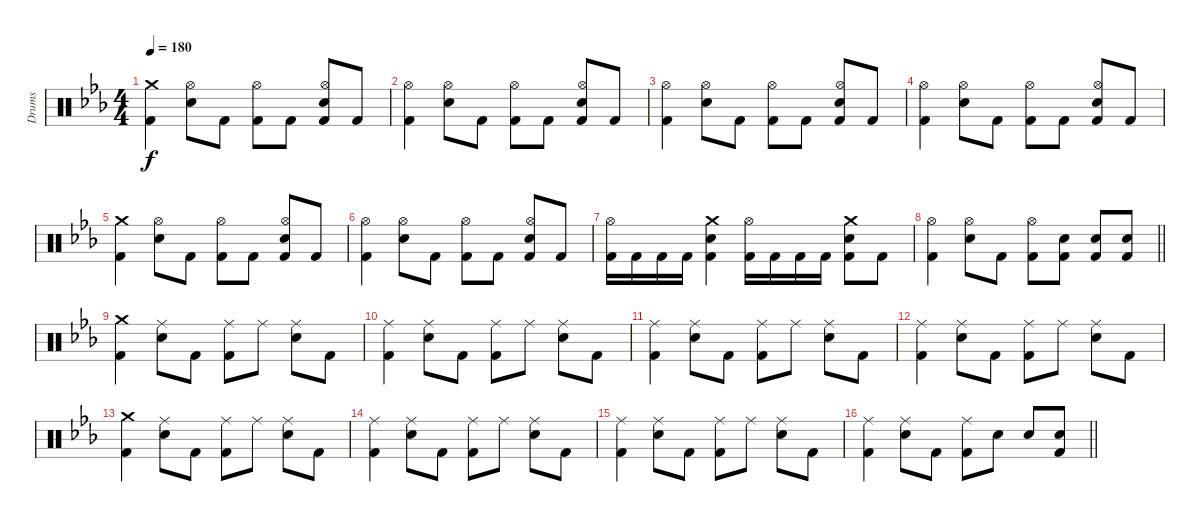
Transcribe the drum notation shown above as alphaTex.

\track ("Drums" "Drums") {instrument percussion}
\staff {score}
\articulation defaults
\ts (4 4)
\tempo 180
\clef neutral
\ks eb
("Crash medium (hit)" "Kick (hit) 2").4{dy f} ("Hi-Hat (open)" "Snare (hit) 2").8 "Kick (hit) 2".8 ("Hi-Hat (open)" "Kick (hit) 2").8 "Kick (hit) 2".8 ("Hi-Hat (open)" "Snare (hit) 2" "Kick (hit) 2").8 "Kick (hit) 2".8 |
("Hi-Hat (open)" "Kick (hit) 2").4 ("Hi-Hat (open)" "Snare (hit) 2").8 "Kick (hit) 2".8 ("Hi-Hat (open)" "Kick (hit) 2").8 "Kick (hit) 2".8 ("Hi-Hat (open)" "Snare (hit) 2" "Kick (hit) 2").8 "Kick (hit) 2".8 |
("Hi-Hat (open)" "Kick (hit) 2").4 ("Hi-Hat (open)" "Snare (hit) 2").8 "Kick (hit) 2".8 ("Hi-Hat (open)" "Kick (hit) 2").8 "Kick (hit) 2".8 ("Hi-Hat (open)" "Snare (hit) 2" "Kick (hit) 2").8 "Kick (hit) 2".8 |
("Hi-Hat (open)" "Kick (hit) 2").4 ("Hi-Hat (open)" "Snare (hit) 2").8 "Kick (hit) 2".8 ("Hi-Hat (open)" "Kick (hit) 2").8 "Kick (hit) 2".8 ("Hi-Hat (open)" "Snare (hit) 2" "Kick (hit) 2").8 "Kick (hit) 2".8 |
("Crash medium (hit)" "Kick (hit) 2").4 ("Hi-Hat (open)" "Snare (hit) 2").8 "Kick (hit) 2".8 ("Hi-Hat (open)" "Kick (hit) 2").8 "Kick (hit) 2".8 ("Hi-Hat (open)" "Snare (hit) 2" "Kick (hit) 2").8 "Kick (hit) 2".8 |
("Hi-Hat (open)" "Kick (hit) 2").4 ("Hi-Hat (open)" "Snare (hit) 2").8 "Kick (hit) 2".8 ("Hi-Hat (open)" "Kick (hit) 2").8 "Kick (hit) 2".8 ("Hi-Hat (open)" "Snare (hit) 2" "Kick (hit) 2").8 "Kick (hit) 2".8 |
("Hi-Hat (open)" "Kick (hit) 2").16 "Kick (hit) 2".16 "Kick (hit) 2".16 "Kick (hit) 2".16 ("Crash medium (hit)" "Snare (hit) 2" "Kick (hit) 2").4 ("Hi-Hat (open)" "Kick (hit) 2").16 "Kick (hit) 2".16 "Kick (hit) 2".16 "Kick (hit) 2".16 ("Crash medium (hit)" "Snare (hit) 2" "Kick (hit) 2").8 "Kick (hit) 2".8 |
\barLineRight lightlight
("Hi-Hat (open)" "Kick (hit) 2").4 ("Hi-Hat (open)" "Snare (hit) 2").8 "Kick (hit) 2".8 ("Hi-Hat (open)" "Kick (hit) 2").8 ("Snare (hit) 2" "Kick (hit) 2").8 ("Snare (hit) 2" "Kick (hit) 2").8 ("Snare (hit) 2" "Kick (hit) 2").8 |
\section ("" "")
("Crash medium (hit)" "Kick (hit) 2").4 ("Ride (middle)" "Snare (hit) 2").8 "Kick (hit) 2".8 ("Ride (middle)" "Kick (hit) 2").8 "Ride (middle)".8 ("Ride (middle)" "Snare (hit) 2").8 "Kick (hit) 2".8 |
("Ride (middle)" "Kick (hit) 2").4 ("Ride (middle)" "Snare (hit) 2").8 "Kick (hit) 2".8 ("Ride (middle)" "Kick (hit) 2").8 "Ride (middle)".8 ("Ride (middle)" "Snare (hit) 2").8 "Kick (hit) 2".8 |
("Ride (middle)" "Kick (hit) 2").4 ("Ride (middle)" "Snare (hit) 2").8 "Kick (hit) 2".8 ("Ride (middle)" "Kick (hit) 2").8 "Ride (middle)".8 ("Ride (middle)" "Snare (hit) 2").8 "Kick (hit) 2".8 |
("Ride (middle)" "Kick (hit) 2").4 ("Ride (middle)" "Snare (hit) 2").8 "Kick (hit) 2".8 ("Ride (middle)" "Kick (hit) 2").8 "Ride (middle)".8 ("Ride (middle)" "Snare (hit) 2").8 "Kick (hit) 2".8 |
("Crash medium (hit)" "Kick (hit) 2").4 ("Ride (middle)" "Snare (hit) 2").8 "Kick (hit) 2".8 ("Ride (middle)" "Kick (hit) 2").8 "Ride (middle)".8 ("Ride (middle)" "Snare (hit) 2").8 "Kick (hit) 2".8 |
("Ride (middle)" "Kick (hit) 2").4 ("Ride (middle)" "Snare (hit) 2").8 "Kick (hit) 2".8 ("Ride (middle)" "Kick (hit) 2").8 "Ride (middle)".8 ("Ride (middle)" "Snare (hit) 2").8 "Kick (hit) 2".8 |
("Ride (middle)" "Kick (hit) 2").4 ("Ride (middle)" "Snare (hit) 2").8 "Kick (hit) 2".8 ("Ride (middle)" "Kick (hit) 2").8 "Ride (middle)".8 ("Ride (middle)" "Snare (hit) 2").8 "Kick (hit) 2".8 |
\barLineRight lightlight
("Ride (middle)" "Kick (hit) 2").4 ("Ride (middle)" "Snare (hit) 2").8 "Kick (hit) 2".8 ("Ride (middle)" "Kick (hit) 2").8 "Snare (hit) 2".8 "Snare (hit) 2".8 ("Snare (hit) 2" "Kick (hit) 2").8
